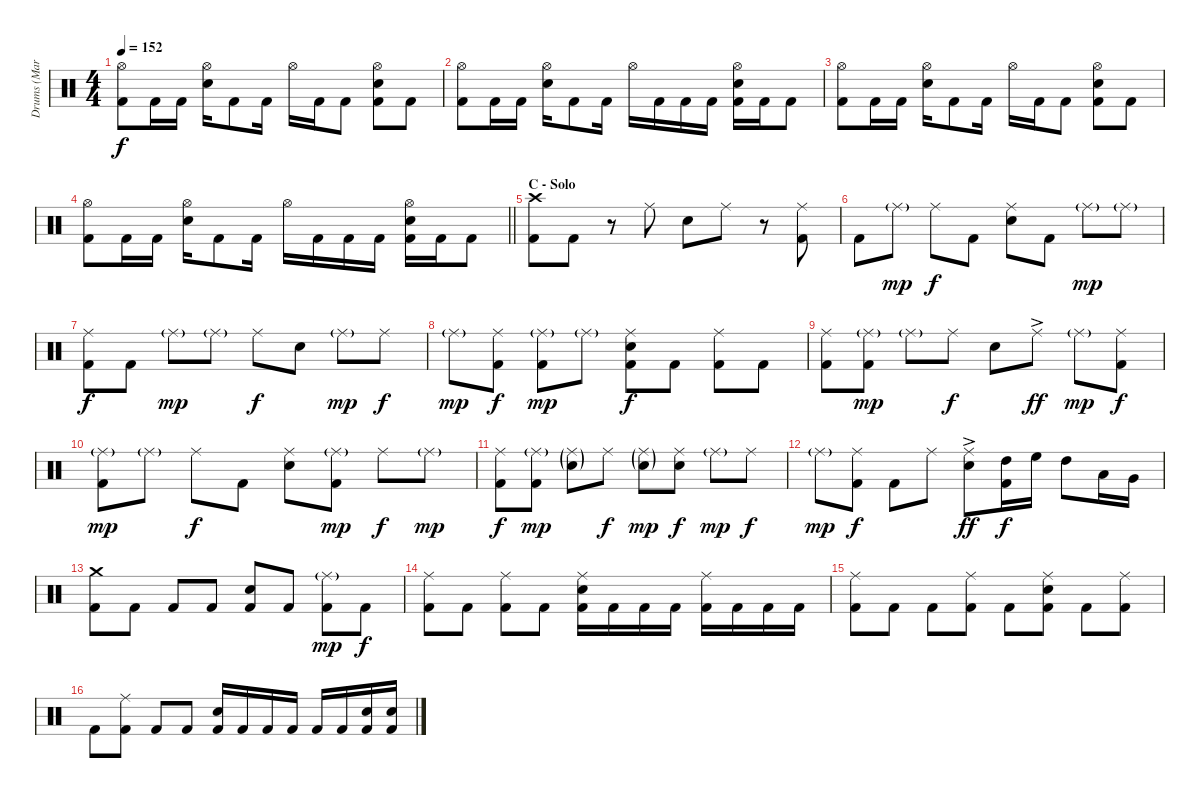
\track ("Drums (Mark Arrington)" "Drums (Mar") {instrument percussion}
\staff {score}
\articulation defaults
\ts (4 4)
\tempo 152
\clef neutral
\ks aminor
("Hi-Hat (open)" "Kick (hit) 2").8{dy f} "Kick (hit) 2".16 "Kick (hit) 2".16 ("Hi-Hat (open)" "Electric Snare (hit)").16 "Kick (hit) 2".8 "Kick (hit) 2".16 "Hi-Hat (open)".16 "Kick (hit) 2".16 "Kick (hit) 2".8 ("Hi-Hat (open)" "Electric Snare (hit)" "Kick (hit) 2").8 "Kick (hit) 2".8 |
("Hi-Hat (open)" "Kick (hit) 2").8 "Kick (hit) 2".16 "Kick (hit) 2".16 ("Hi-Hat (open)" "Electric Snare (hit)").16 "Kick (hit) 2".8 "Kick (hit) 2".16 "Hi-Hat (open)".16 "Kick (hit) 2".16 "Kick (hit) 2".16 "Kick (hit) 2".16 ("Hi-Hat (open)" "Electric Snare (hit)" "Kick (hit) 2").16 "Kick (hit) 2".16 "Kick (hit) 2".8 |
("Hi-Hat (open)" "Kick (hit) 2").8 "Kick (hit) 2".16 "Kick (hit) 2".16 ("Hi-Hat (open)" "Electric Snare (hit)").16 "Kick (hit) 2".8 "Kick (hit) 2".16 "Hi-Hat (open)".16 "Kick (hit) 2".16 "Kick (hit) 2".8 ("Hi-Hat (open)" "Electric Snare (hit)" "Kick (hit) 2").8 "Kick (hit) 2".8 |
\barLineRight lightlight
("Hi-Hat (open)" "Kick (hit) 2").8 "Kick (hit) 2".16 "Kick (hit) 2".16 ("Hi-Hat (open)" "Electric Snare (hit)").16 "Kick (hit) 2".8 "Kick (hit) 2".16 "Hi-Hat (open)".16 "Kick (hit) 2".16 "Kick (hit) 2".16 "Kick (hit) 2".16 ("Hi-Hat (open)" "Electric Snare (hit)" "Kick (hit) 2").16 "Kick (hit) 2".16 "Kick (hit) 2".8 |
\section ("" "C - Solo")
("Crash high (hit)" "Kick (hit) 2").8 "Kick (hit) 2".8 r.8 "Ride (middle)".8 "Electric Snare (hit)".8 "Ride (middle)".8 r.8 ("Ride (middle)" "Kick (hit) 2").8 |
"Kick (hit) 2".8 "Ride (middle)"{g}.8{dy mp} "Ride (middle)".8{dy f} "Kick (hit) 2".8 ("Ride (middle)" "Electric Snare (hit)").8 "Kick (hit) 2".8 "Ride (middle)"{g}.8{dy mp} "Ride (middle)"{g}.8 |
("Ride (middle)" "Kick (hit) 2").8{dy f} "Kick (hit) 2".8 "Ride (middle)"{g}.8{dy mp} "Ride (middle)"{g}.8 "Ride (middle)".8{dy f} "Electric Snare (hit)".8 "Ride (middle)"{g}.8{dy mp} "Ride (middle)".8{dy f} |
"Ride (middle)"{g}.8{dy mp} ("Ride (middle)" "Kick (hit) 2").8{dy f} ("Ride (middle)"{g} "Kick (hit) 2").8{dy mp} "Ride (middle)"{g}.8 ("Ride (middle)" "Electric Snare (hit)" "Kick (hit) 2").8{dy f} "Kick (hit) 2".8 ("Ride (middle)" "Kick (hit) 2").8 "Kick (hit) 2".8 |
("Ride (middle)" "Kick (hit) 2").8 ("Ride (middle)"{g} "Kick (hit) 2").8{dy mp} "Ride (middle)"{g}.8 "Ride (middle)".8{dy f} "Electric Snare (hit)".8 "Ride (middle)"{ac}.8{dy ff} "Ride (middle)"{g}.8{dy mp} ("Ride (middle)" "Kick (hit) 2").8{dy f} |
("Ride (middle)"{g} "Kick (hit) 2").8{dy mp} "Ride (middle)"{g}.8 "Ride (middle)".8{dy f} "Kick (hit) 2".8 ("Ride (middle)" "Electric Snare (hit)").8 ("Ride (middle)"{g} "Kick (hit) 2").8{dy mp} "Ride (middle)".8{dy f} "Ride (middle)"{g}.8{dy mp} |
("Ride (middle)" "Kick (hit) 2").8{dy f} ("Ride (middle)"{g} "Kick (hit) 2").8{dy mp} ("Ride (middle)"{g} "Electric Snare (hit)"{g}).8 "Ride (middle)".8{dy f} ("Ride (middle)"{g} "Electric Snare (hit)"{g}).8{dy mp} ("Ride (middle)" "Electric Snare (hit)").8{dy f} "Ride (middle)"{g}.8{dy mp} "Ride (middle)".8{dy f} |
"Ride (middle)"{g}.8{dy mp} ("Ride (middle)" "Kick (hit) 2").8{dy f} "Kick (hit) 2".8 "Ride (middle)".8 ("Ride (middle)"{ac} "Electric Snare (hit)").8{dy ff} ("High Tom (hit)" "Kick (hit) 2").16{dy f} "High Floor Tom (hit)".16 "High Tom (hit)".8 "Low Tom (hit)".16 "Very Low Tom (hit)".16 |
("Crash medium (hit)" "Kick (hit) 2").8 "Kick (hit) 2".8 "Kick (hit) 2".8 "Kick (hit) 2".8 ("Electric Snare (hit)" "Kick (hit) 2").8 "Kick (hit) 2".8 ("Ride (middle)"{g} "Kick (hit) 2").8{dy mp} "Kick (hit) 2".8{dy f} |
("Ride (middle)" "Kick (hit) 2").8 "Kick (hit) 2".8 ("Ride (middle)" "Kick (hit) 2").8 "Kick (hit) 2".8 ("Ride (middle)" "Electric Snare (hit)" "Kick (hit) 2").16 "Kick (hit) 2".16 "Kick (hit) 2".16 "Kick (hit) 2".16 ("Ride (middle)" "Kick (hit) 2").16 "Kick (hit) 2".16 "Kick (hit) 2".16 "Kick (hit) 2".16 |
("Ride (middle)" "Kick (hit) 2").8 "Kick (hit) 2".8 "Kick (hit) 2".8 ("Ride (middle)" "Kick (hit) 2").8 "Kick (hit) 2".8 ("Ride (middle)" "Electric Snare (hit)" "Kick (hit) 2").8 "Kick (hit) 2".8 ("Ride (middle)" "Kick (hit) 2").8 |
"Kick (hit) 2".8 ("Ride (middle)" "Kick (hit) 2").8 "Kick (hit) 2".8 "Kick (hit) 2".8 ("Electric Snare (hit)" "Kick (hit) 2").16 "Kick (hit) 2".16 "Kick (hit) 2".16 "Kick (hit) 2".16 "Kick (hit) 2".16 "Kick (hit) 2".16 ("Electric Snare (hit)" "Kick (hit) 2").16 ("Electric Snare (hit)" "Kick (hit) 2").16
